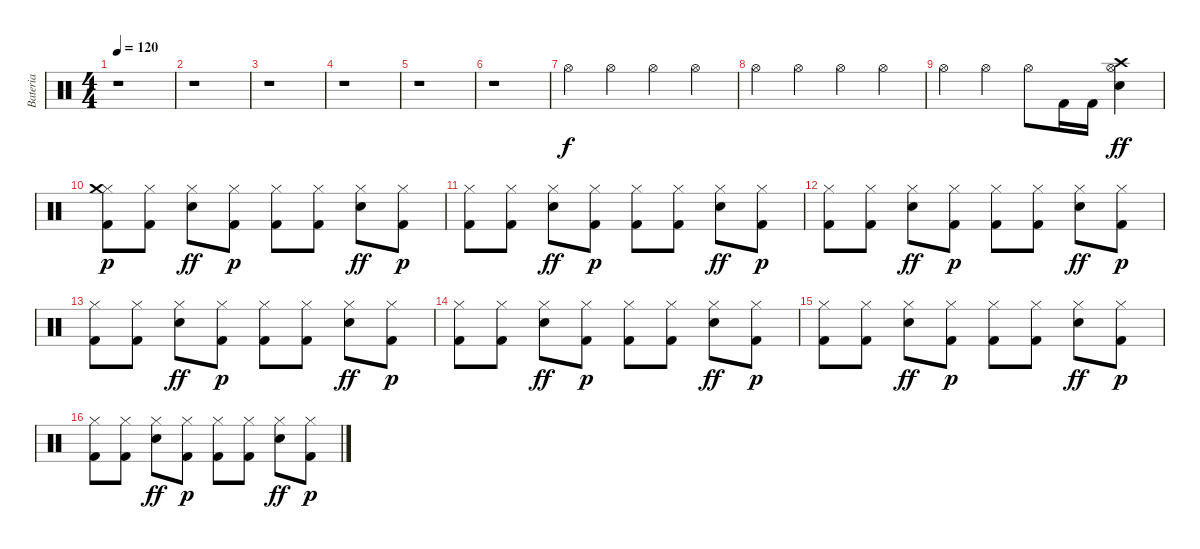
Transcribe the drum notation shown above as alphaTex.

\track ("Bateria" "Bateria") {instrument percussion}
\staff {score}
\articulation defaults
\ts (4 4)
\tempo 120
\clef neutral
\ks c
r.1{dy f} |
r.1 |
r.1 |
r.1 |
r.1 |
r.1 |
"Hi-Hat (open)".4 "Hi-Hat (open)".4 "Hi-Hat (open)".4 "Hi-Hat (open)".4 |
"Hi-Hat (open)".4 "Hi-Hat (open)".4 "Hi-Hat (open)".4 "Hi-Hat (open)".4 |
"Hi-Hat (open)".4 "Hi-Hat (open)".4 "Hi-Hat (open)".8 "Kick (hit) 2".16 "Kick (hit) 2".16 ("Crash high (hit)" "Hi-Hat (open)" "Snare (hit) 2").4{dy ff} |
("Hi-Hat (closed)" "Kick (hit) 2" "Crash medium (hit)").8{dy p} ("Hi-Hat (closed)" "Kick (hit) 2").8 ("Hi-Hat (closed)" "Snare (hit) 2").8{dy ff} ("Hi-Hat (closed)" "Kick (hit) 2").8{dy p} ("Hi-Hat (closed)" "Kick (hit) 2").8 ("Hi-Hat (closed)" "Kick (hit) 2").8 ("Hi-Hat (closed)" "Snare (hit) 2").8{dy ff} ("Hi-Hat (closed)" "Kick (hit) 2").8{dy p} |
("Hi-Hat (closed)" "Kick (hit) 2").8 ("Hi-Hat (closed)" "Kick (hit) 2").8 ("Hi-Hat (closed)" "Snare (hit) 2").8{dy ff} ("Hi-Hat (closed)" "Kick (hit) 2").8{dy p} ("Hi-Hat (closed)" "Kick (hit) 2").8 ("Hi-Hat (closed)" "Kick (hit) 2").8 ("Hi-Hat (closed)" "Snare (hit) 2").8{dy ff} ("Hi-Hat (closed)" "Kick (hit) 2").8{dy p} |
("Hi-Hat (closed)" "Kick (hit) 2").8 ("Hi-Hat (closed)" "Kick (hit) 2").8 ("Hi-Hat (closed)" "Snare (hit) 2").8{dy ff} ("Hi-Hat (closed)" "Kick (hit) 2").8{dy p} ("Hi-Hat (closed)" "Kick (hit) 2").8 ("Hi-Hat (closed)" "Kick (hit) 2").8 ("Hi-Hat (closed)" "Snare (hit) 2").8{dy ff} ("Hi-Hat (closed)" "Kick (hit) 2").8{dy p} |
("Hi-Hat (closed)" "Kick (hit) 2").8 ("Hi-Hat (closed)" "Kick (hit) 2").8 ("Hi-Hat (closed)" "Snare (hit) 2").8{dy ff} ("Hi-Hat (closed)" "Kick (hit) 2").8{dy p} ("Hi-Hat (closed)" "Kick (hit) 2").8 ("Hi-Hat (closed)" "Kick (hit) 2").8 ("Hi-Hat (closed)" "Snare (hit) 2").8{dy ff} ("Hi-Hat (closed)" "Kick (hit) 2").8{dy p} |
("Hi-Hat (closed)" "Kick (hit) 2").8 ("Hi-Hat (closed)" "Kick (hit) 2").8 ("Hi-Hat (closed)" "Snare (hit) 2").8{dy ff} ("Hi-Hat (closed)" "Kick (hit) 2").8{dy p} ("Hi-Hat (closed)" "Kick (hit) 2").8 ("Hi-Hat (closed)" "Kick (hit) 2").8 ("Hi-Hat (closed)" "Snare (hit) 2").8{dy ff} ("Hi-Hat (closed)" "Kick (hit) 2").8{dy p} |
("Hi-Hat (closed)" "Kick (hit) 2").8 ("Hi-Hat (closed)" "Kick (hit) 2").8 ("Hi-Hat (closed)" "Snare (hit) 2").8{dy ff} ("Hi-Hat (closed)" "Kick (hit) 2").8{dy p} ("Hi-Hat (closed)" "Kick (hit) 2").8 ("Hi-Hat (closed)" "Kick (hit) 2").8 ("Hi-Hat (closed)" "Snare (hit) 2").8{dy ff} ("Hi-Hat (closed)" "Kick (hit) 2").8{dy p} |
("Hi-Hat (closed)" "Kick (hit) 2").8 ("Hi-Hat (closed)" "Kick (hit) 2").8 ("Hi-Hat (closed)" "Snare (hit) 2").8{dy ff} ("Hi-Hat (closed)" "Kick (hit) 2").8{dy p} ("Hi-Hat (closed)" "Kick (hit) 2").8 ("Hi-Hat (closed)" "Kick (hit) 2").8 ("Hi-Hat (closed)" "Snare (hit) 2").8{dy ff} ("Hi-Hat (closed)" "Kick (hit) 2").8{dy p}
